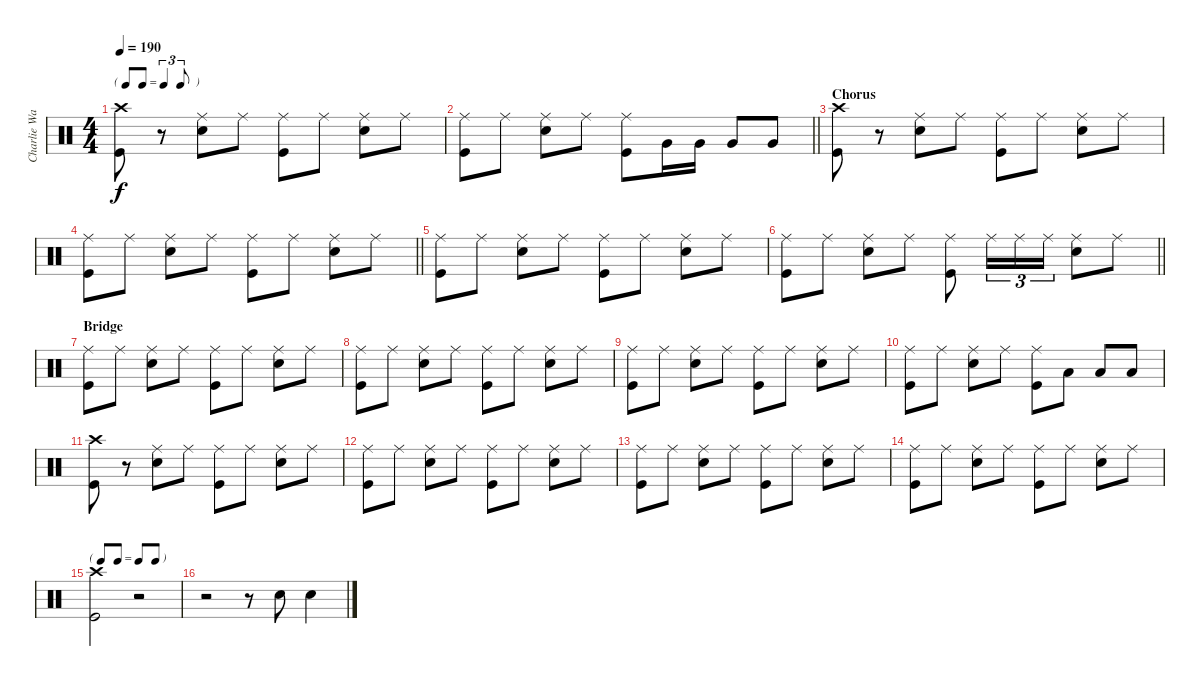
\track ("Charlie Watts" "Charlie Wa") {instrument percussion}
\staff {score}
\articulation defaults
\ts (4 4)
\tf triplet8th
\tempo 190
\clef neutral
\ks c
("Crash high (hit)" "Kick (hit)").8{dy f} r.8 ("Ride (middle)" "Snare (hit) 2").8 "Ride (middle)".8 ("Ride (middle)" "Kick (hit)").8 "Ride (middle)".8 ("Ride (middle)" "Snare (hit) 2").8 "Ride (middle)".8 |
\barLineRight lightlight
("Ride (middle)" "Kick (hit)").8 "Ride (middle)".8 ("Ride (middle)" "Snare (hit) 2").8 "Ride (middle)".8 ("Ride (middle)" "Kick (hit)").8 "Very Low Tom (hit)".16 "Very Low Tom (hit)".16 "Very Low Tom (hit)".8 "Very Low Tom (hit)".8 |
\section ("" "Chorus")
("Crash high (hit)" "Kick (hit)").8 r.8 ("Ride (middle)" "Snare (hit) 2").8 "Ride (middle)".8 ("Ride (middle)" "Kick (hit)").8 "Ride (middle)".8 ("Ride (middle)" "Snare (hit) 2").8 "Ride (middle)".8 |
\barLineRight lightlight
("Ride (middle)" "Kick (hit)").8 "Ride (middle)".8 ("Ride (middle)" "Snare (hit) 2").8 "Ride (middle)".8 ("Ride (middle)" "Kick (hit)").8 "Ride (middle)".8 ("Ride (middle)" "Snare (hit) 2").8 "Ride (middle)".8 |
("Ride (middle)" "Kick (hit)").8 "Ride (middle)".8 ("Ride (middle)" "Snare (hit) 2").8 "Ride (middle)".8 ("Ride (middle)" "Kick (hit)").8 "Ride (middle)".8 ("Ride (middle)" "Snare (hit) 2").8 "Ride (middle)".8 |
\barLineRight lightlight
("Ride (middle)" "Kick (hit)").8 "Ride (middle)".8 ("Ride (middle)" "Snare (hit) 2").8 "Ride (middle)".8 ("Ride (middle)" "Kick (hit)").8 "Ride (middle)".16{tu (3 2)} "Ride (middle)".16{tu (3 2)} "Ride (middle)".16{tu (3 2)} ("Ride (middle)" "Snare (hit) 2").8 "Ride (middle)".8 |
\section ("" "Bridge")
("Ride (middle)" "Kick (hit)").8 "Ride (middle)".8 ("Ride (middle)" "Snare (hit) 2").8 "Ride (middle)".8 ("Ride (middle)" "Kick (hit)").8 "Ride (middle)".8 ("Ride (middle)" "Snare (hit) 2").8 "Ride (middle)".8 |
("Ride (middle)" "Kick (hit)").8 "Ride (middle)".8 ("Ride (middle)" "Snare (hit) 2").8 "Ride (middle)".8 ("Ride (middle)" "Kick (hit)").8 "Ride (middle)".8 ("Ride (middle)" "Snare (hit) 2").8 "Ride (middle)".8 |
("Ride (middle)" "Kick (hit)").8 "Ride (middle)".8 ("Ride (middle)" "Snare (hit) 2").8 "Ride (middle)".8 ("Ride (middle)" "Kick (hit)").8 "Ride (middle)".8 ("Ride (middle)" "Snare (hit) 2").8 "Ride (middle)".8 |
("Ride (middle)" "Kick (hit)").8 "Ride (middle)".8 ("Ride (middle)" "Snare (hit) 2").8 "Ride (middle)".8 ("Ride (middle)" "Kick (hit)").8 "Low Tom (hit)".8 "Low Tom (hit)".8 "Low Tom (hit)".8 |
("Crash high (hit)" "Kick (hit)").8 r.8 ("Ride (middle)" "Snare (hit) 2").8 "Ride (middle)".8 ("Ride (middle)" "Kick (hit)").8 "Ride (middle)".8 ("Ride (middle)" "Snare (hit) 2").8 "Ride (middle)".8 |
("Ride (middle)" "Kick (hit)").8 "Ride (middle)".8 ("Ride (middle)" "Snare (hit) 2").8 "Ride (middle)".8 ("Ride (middle)" "Kick (hit)").8 "Ride (middle)".8 ("Ride (middle)" "Snare (hit) 2").8 "Ride (middle)".8 |
("Ride (middle)" "Kick (hit)").8 "Ride (middle)".8 ("Ride (middle)" "Snare (hit) 2").8 "Ride (middle)".8 ("Ride (middle)" "Kick (hit)").8 "Ride (middle)".8 ("Ride (middle)" "Snare (hit) 2").8 "Ride (middle)".8 |
("Ride (middle)" "Kick (hit)").8 "Ride (middle)".8 ("Ride (middle)" "Snare (hit) 2").8 "Ride (middle)".8 ("Ride (middle)" "Kick (hit)").8 "Ride (middle)".8 ("Ride (middle)" "Snare (hit) 2").8 "Ride (middle)".8 |
\tf none
("Crash high (hit)" "Kick (hit)").2 r.2 |
r.2 r.8 "Snare (hit) 2".8 "Snare (hit) 2".4
